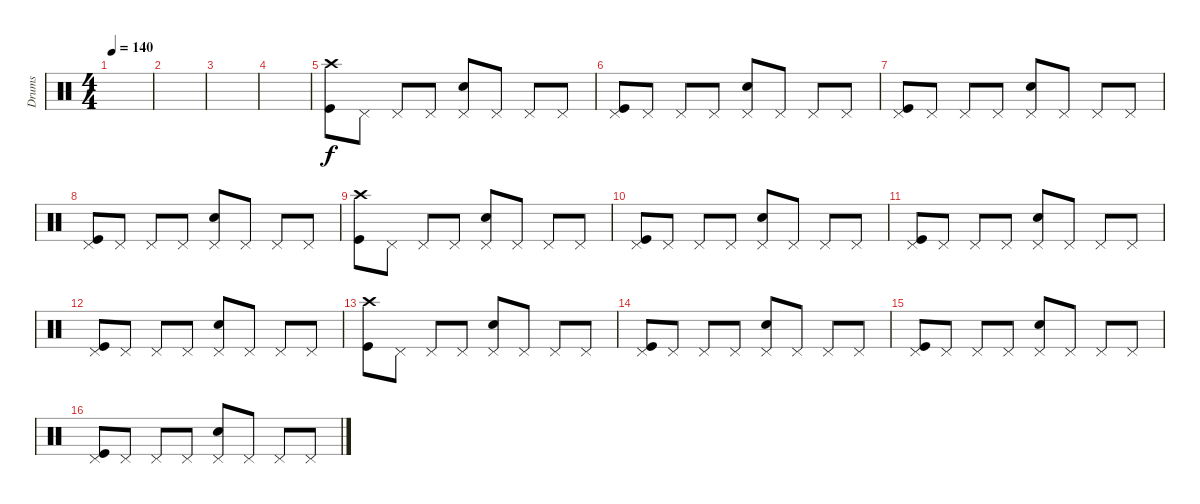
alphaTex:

\track ("Drums" "Drums") {instrument percussion}
\staff {score}
\articulation defaults
\ts (4 4)
\tempo 140
\clef neutral
\ks c
|
|
|
|
("Crash high (hit)" "Kick (hit)").8 "Pedal Hi-Hat (hit)".8 "Pedal Hi-Hat (hit)".8 "Pedal Hi-Hat (hit)".8 ("Pedal Hi-Hat (hit)" "Snare (hit) 2").8 "Pedal Hi-Hat (hit)".8 "Pedal Hi-Hat (hit)".8 "Pedal Hi-Hat (hit)".8 |
("Pedal Hi-Hat (hit)" "Kick (hit)").8 "Pedal Hi-Hat (hit)".8 "Pedal Hi-Hat (hit)".8 "Pedal Hi-Hat (hit)".8 ("Pedal Hi-Hat (hit)" "Snare (hit) 2").8 "Pedal Hi-Hat (hit)".8 "Pedal Hi-Hat (hit)".8 "Pedal Hi-Hat (hit)".8 |
("Pedal Hi-Hat (hit)" "Kick (hit)").8 "Pedal Hi-Hat (hit)".8 "Pedal Hi-Hat (hit)".8 "Pedal Hi-Hat (hit)".8 ("Pedal Hi-Hat (hit)" "Snare (hit) 2").8 "Pedal Hi-Hat (hit)".8 "Pedal Hi-Hat (hit)".8 "Pedal Hi-Hat (hit)".8 |
("Pedal Hi-Hat (hit)" "Kick (hit)").8 "Pedal Hi-Hat (hit)".8 "Pedal Hi-Hat (hit)".8 "Pedal Hi-Hat (hit)".8 ("Pedal Hi-Hat (hit)" "Snare (hit) 2").8 "Pedal Hi-Hat (hit)".8 "Pedal Hi-Hat (hit)".8 "Pedal Hi-Hat (hit)".8 |
("Crash high (hit)" "Kick (hit)").8 "Pedal Hi-Hat (hit)".8 "Pedal Hi-Hat (hit)".8 "Pedal Hi-Hat (hit)".8 ("Pedal Hi-Hat (hit)" "Snare (hit) 2").8 "Pedal Hi-Hat (hit)".8 "Pedal Hi-Hat (hit)".8 "Pedal Hi-Hat (hit)".8 |
("Pedal Hi-Hat (hit)" "Kick (hit)").8 "Pedal Hi-Hat (hit)".8 "Pedal Hi-Hat (hit)".8 "Pedal Hi-Hat (hit)".8 ("Pedal Hi-Hat (hit)" "Snare (hit) 2").8 "Pedal Hi-Hat (hit)".8 "Pedal Hi-Hat (hit)".8 "Pedal Hi-Hat (hit)".8 |
("Pedal Hi-Hat (hit)" "Kick (hit)").8 "Pedal Hi-Hat (hit)".8 "Pedal Hi-Hat (hit)".8 "Pedal Hi-Hat (hit)".8 ("Pedal Hi-Hat (hit)" "Snare (hit) 2").8 "Pedal Hi-Hat (hit)".8 "Pedal Hi-Hat (hit)".8 "Pedal Hi-Hat (hit)".8 |
("Pedal Hi-Hat (hit)" "Kick (hit)").8 "Pedal Hi-Hat (hit)".8 "Pedal Hi-Hat (hit)".8 "Pedal Hi-Hat (hit)".8 ("Pedal Hi-Hat (hit)" "Snare (hit) 2").8 "Pedal Hi-Hat (hit)".8 "Pedal Hi-Hat (hit)".8 "Pedal Hi-Hat (hit)".8 |
("Crash high (hit)" "Kick (hit)").8 "Pedal Hi-Hat (hit)".8 "Pedal Hi-Hat (hit)".8 "Pedal Hi-Hat (hit)".8 ("Pedal Hi-Hat (hit)" "Snare (hit) 2").8 "Pedal Hi-Hat (hit)".8 "Pedal Hi-Hat (hit)".8 "Pedal Hi-Hat (hit)".8 |
("Pedal Hi-Hat (hit)" "Kick (hit)").8 "Pedal Hi-Hat (hit)".8 "Pedal Hi-Hat (hit)".8 "Pedal Hi-Hat (hit)".8 ("Pedal Hi-Hat (hit)" "Snare (hit) 2").8 "Pedal Hi-Hat (hit)".8 "Pedal Hi-Hat (hit)".8 "Pedal Hi-Hat (hit)".8 |
("Pedal Hi-Hat (hit)" "Kick (hit)").8 "Pedal Hi-Hat (hit)".8 "Pedal Hi-Hat (hit)".8 "Pedal Hi-Hat (hit)".8 ("Pedal Hi-Hat (hit)" "Snare (hit) 2").8 "Pedal Hi-Hat (hit)".8 "Pedal Hi-Hat (hit)".8 "Pedal Hi-Hat (hit)".8 |
("Pedal Hi-Hat (hit)" "Kick (hit)").8 "Pedal Hi-Hat (hit)".8 "Pedal Hi-Hat (hit)".8 "Pedal Hi-Hat (hit)".8 ("Pedal Hi-Hat (hit)" "Snare (hit) 2").8 "Pedal Hi-Hat (hit)".8 "Pedal Hi-Hat (hit)".8 "Pedal Hi-Hat (hit)".8
